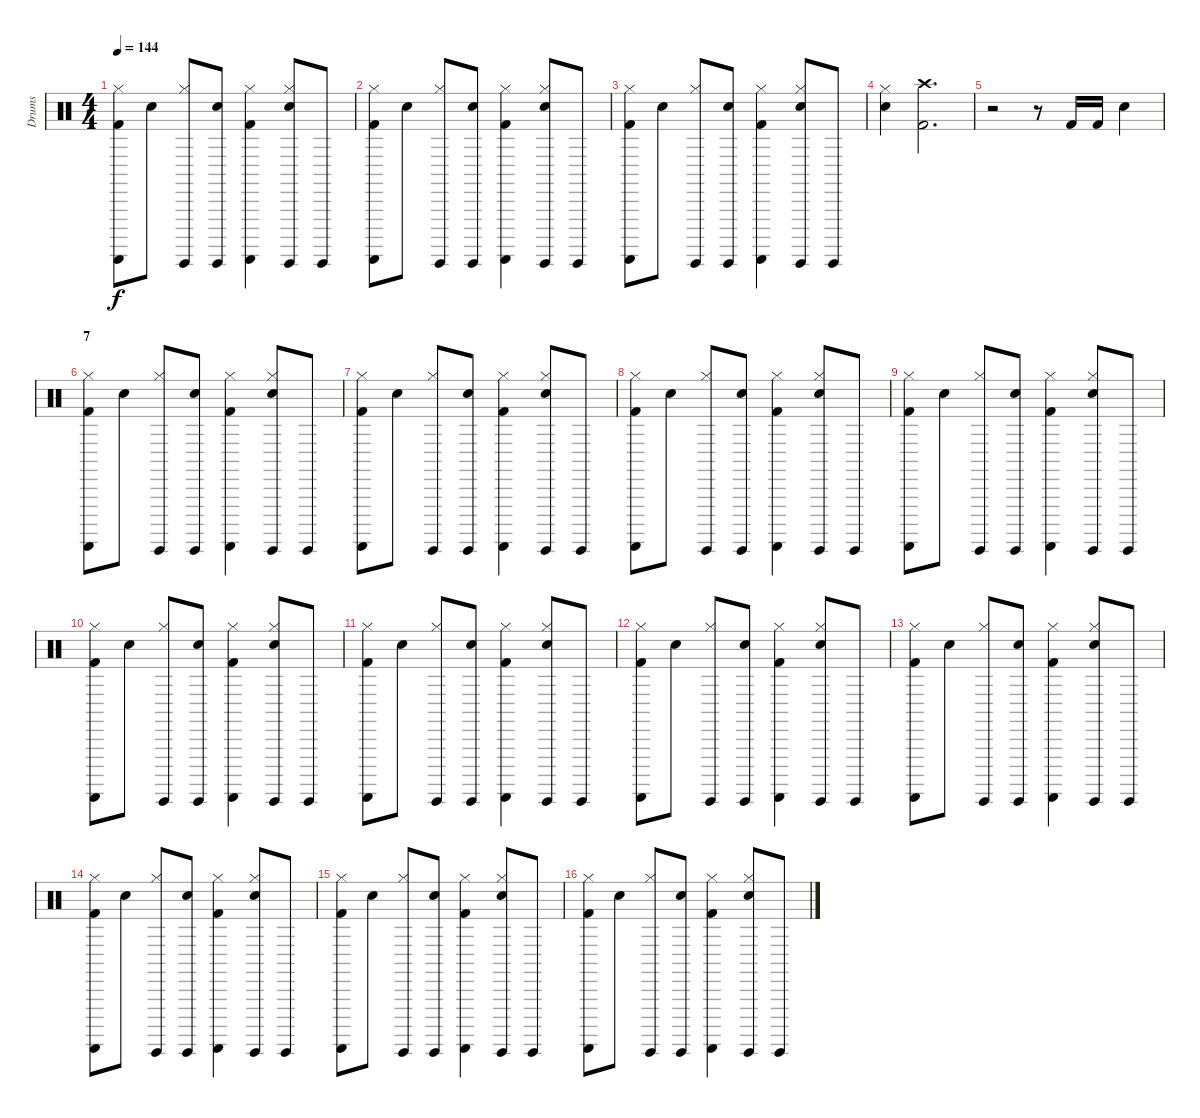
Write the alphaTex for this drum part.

\track ("Drums" "Drums") {instrument percussion}
\staff {score}
\articulation defaults
\ts (4 4)
\tempo 144
\clef neutral
\ks c
("Kick (hit) 2" "Guiro (scrap-return)" "Hi-Hat (closed)").8{dy f} "Electric Snare (hit)".8 ("Hi-Hat (closed)" "Guiro (hit)").8 ("Electric Snare (hit)" "Guiro (hit)").8 ("Hi-Hat (closed)" "Guiro (scrap-return)" "Kick (hit) 2").4 ("Guiro (hit)" "Electric Snare (hit)" "Hi-Hat (closed)").8 "Guiro (hit)".8 |
("Kick (hit) 2" "Guiro (scrap-return)" "Hi-Hat (closed)").8 "Electric Snare (hit)".8 ("Hi-Hat (closed)" "Guiro (hit)").8 ("Electric Snare (hit)" "Guiro (hit)").8 ("Hi-Hat (closed)" "Guiro (scrap-return)" "Kick (hit) 2").4 ("Guiro (hit)" "Electric Snare (hit)" "Hi-Hat (closed)").8 "Guiro (hit)".8 |
("Kick (hit) 2" "Guiro (scrap-return)" "Hi-Hat (closed)").8 "Electric Snare (hit)".8 ("Hi-Hat (closed)" "Guiro (hit)").8 ("Electric Snare (hit)" "Guiro (hit)").8 ("Hi-Hat (closed)" "Guiro (scrap-return)" "Kick (hit) 2").4 ("Guiro (hit)" "Electric Snare (hit)" "Hi-Hat (closed)").8 "Guiro (hit)".8 |
("Electric Snare (hit)" "Hi-Hat (closed)").4 ("Kick (hit) 2" "Crash high (hit)").2{d} |
r.2 r.8 "Kick (hit) 2".16 "Kick (hit) 2".16 "Electric Snare (hit)".4 |
\section ("" "7")
("Kick (hit) 2" "Guiro (scrap-return)" "Hi-Hat (closed)").8 "Electric Snare (hit)".8 ("Hi-Hat (closed)" "Guiro (hit)").8 ("Electric Snare (hit)" "Guiro (hit)").8 ("Hi-Hat (closed)" "Guiro (scrap-return)" "Kick (hit) 2").4 ("Guiro (hit)" "Electric Snare (hit)" "Hi-Hat (closed)").8 "Guiro (hit)".8 |
("Kick (hit) 2" "Guiro (scrap-return)" "Hi-Hat (closed)").8 "Electric Snare (hit)".8 ("Hi-Hat (closed)" "Guiro (hit)").8 ("Electric Snare (hit)" "Guiro (hit)").8 ("Hi-Hat (closed)" "Guiro (scrap-return)" "Kick (hit) 2").4 ("Guiro (hit)" "Electric Snare (hit)" "Hi-Hat (closed)").8 "Guiro (hit)".8 |
("Kick (hit) 2" "Guiro (scrap-return)" "Hi-Hat (closed)").8 "Electric Snare (hit)".8 ("Hi-Hat (closed)" "Guiro (hit)").8 ("Electric Snare (hit)" "Guiro (hit)").8 ("Hi-Hat (closed)" "Guiro (scrap-return)" "Kick (hit) 2").4 ("Guiro (hit)" "Electric Snare (hit)" "Hi-Hat (closed)").8 "Guiro (hit)".8 |
("Kick (hit) 2" "Guiro (scrap-return)" "Hi-Hat (closed)").8 "Electric Snare (hit)".8 ("Hi-Hat (closed)" "Guiro (hit)").8 ("Electric Snare (hit)" "Guiro (hit)").8 ("Hi-Hat (closed)" "Guiro (scrap-return)" "Kick (hit) 2").4 ("Guiro (hit)" "Electric Snare (hit)" "Hi-Hat (closed)").8 "Guiro (hit)".8 |
("Kick (hit) 2" "Guiro (scrap-return)" "Hi-Hat (closed)").8 "Electric Snare (hit)".8 ("Hi-Hat (closed)" "Guiro (hit)").8 ("Electric Snare (hit)" "Guiro (hit)").8 ("Hi-Hat (closed)" "Guiro (scrap-return)" "Kick (hit) 2").4 ("Guiro (hit)" "Electric Snare (hit)" "Hi-Hat (closed)").8 "Guiro (hit)".8 |
("Kick (hit) 2" "Guiro (scrap-return)" "Hi-Hat (closed)").8 "Electric Snare (hit)".8 ("Hi-Hat (closed)" "Guiro (hit)").8 ("Electric Snare (hit)" "Guiro (hit)").8 ("Hi-Hat (closed)" "Guiro (scrap-return)" "Kick (hit) 2").4 ("Guiro (hit)" "Electric Snare (hit)" "Hi-Hat (closed)").8 "Guiro (hit)".8 |
("Kick (hit) 2" "Guiro (scrap-return)" "Hi-Hat (closed)").8 "Electric Snare (hit)".8 ("Hi-Hat (closed)" "Guiro (hit)").8 ("Electric Snare (hit)" "Guiro (hit)").8 ("Hi-Hat (closed)" "Guiro (scrap-return)" "Kick (hit) 2").4 ("Guiro (hit)" "Electric Snare (hit)" "Hi-Hat (closed)").8 "Guiro (hit)".8 |
("Kick (hit) 2" "Guiro (scrap-return)" "Hi-Hat (closed)").8 "Electric Snare (hit)".8 ("Hi-Hat (closed)" "Guiro (hit)").8 ("Electric Snare (hit)" "Guiro (hit)").8 ("Hi-Hat (closed)" "Guiro (scrap-return)" "Kick (hit) 2").4 ("Guiro (hit)" "Electric Snare (hit)" "Hi-Hat (closed)").8 "Guiro (hit)".8 |
("Kick (hit) 2" "Guiro (scrap-return)" "Hi-Hat (closed)").8 "Electric Snare (hit)".8 ("Hi-Hat (closed)" "Guiro (hit)").8 ("Electric Snare (hit)" "Guiro (hit)").8 ("Hi-Hat (closed)" "Guiro (scrap-return)" "Kick (hit) 2").4 ("Guiro (hit)" "Electric Snare (hit)" "Hi-Hat (closed)").8 "Guiro (hit)".8 |
("Kick (hit) 2" "Guiro (scrap-return)" "Hi-Hat (closed)").8 "Electric Snare (hit)".8 ("Hi-Hat (closed)" "Guiro (hit)").8 ("Electric Snare (hit)" "Guiro (hit)").8 ("Hi-Hat (closed)" "Guiro (scrap-return)" "Kick (hit) 2").4 ("Guiro (hit)" "Electric Snare (hit)" "Hi-Hat (closed)").8 "Guiro (hit)".8 |
("Kick (hit) 2" "Guiro (scrap-return)" "Hi-Hat (closed)").8 "Electric Snare (hit)".8 ("Hi-Hat (closed)" "Guiro (hit)").8 ("Electric Snare (hit)" "Guiro (hit)").8 ("Hi-Hat (closed)" "Guiro (scrap-return)" "Kick (hit) 2").4 ("Guiro (hit)" "Electric Snare (hit)" "Hi-Hat (closed)").8 "Guiro (hit)".8
